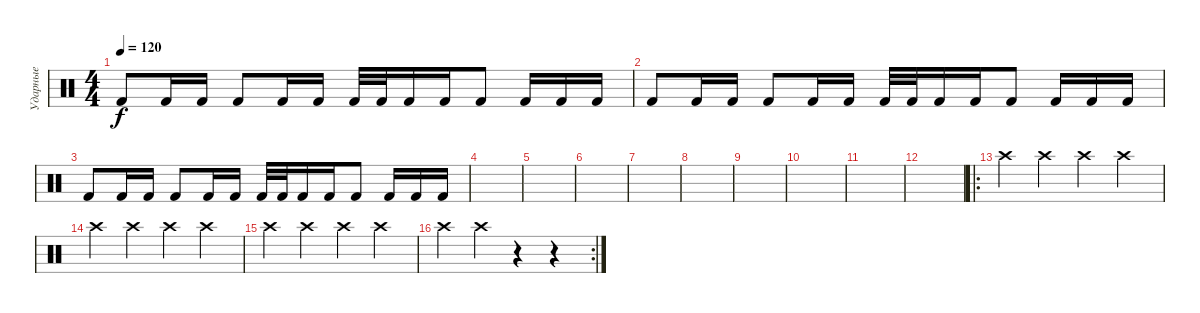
\track ("Ударные" "Ударные") {instrument percussion}
\staff {score}
\articulation defaults
\ts (4 4)
\tempo 120
\clef neutral
\ks c "Kick (hit) 2".8{dy f} "Kick (hit) 2".16 "Kick (hit) 2".16 "Kick (hit) 2".8 "Kick (hit) 2".16 "Kick (hit) 2".16 "Kick (hit) 2".32 "Kick (hit) 2".32 "Kick (hit) 2".16 "Kick (hit) 2".16 "Kick (hit) 2".8 "Kick (hit) 2".16 "Kick (hit) 2".16 "Kick (hit) 2".16
|
"Kick (hit) 2".8 "Kick (hit) 2".16 "Kick (hit) 2".16 "Kick (hit) 2".8 "Kick (hit) 2".16 "Kick (hit) 2".16 "Kick (hit) 2".32 "Kick (hit) 2".32 "Kick (hit) 2".16 "Kick (hit) 2".16 "Kick (hit) 2".8 "Kick (hit) 2".16 "Kick (hit) 2".16 "Kick (hit) 2".16 |
"Kick (hit) 2".8 "Kick (hit) 2".16 "Kick (hit) 2".16 "Kick (hit) 2".8 "Kick (hit) 2".16 "Kick (hit) 2".16 "Kick (hit) 2".32 "Kick (hit) 2".32 "Kick (hit) 2".16 "Kick (hit) 2".16 "Kick (hit) 2".8 "Kick (hit) 2".16 "Kick (hit) 2".16 "Kick (hit) 2".16 |
|
|
|
|
|
|
|
|
|
\ro "Crash high (hit)".4 "Crash high (hit)".4 "Crash high (hit)".4 "Crash high (hit)".4
|
"Crash high (hit)".4 "Crash high (hit)".4 "Crash high (hit)".4 "Crash high (hit)".4 |
"Crash high (hit)".4 "Crash high (hit)".4 "Crash high (hit)".4 "Crash high (hit)".4 |
\rc 2 "Crash high (hit)".4 "Crash high (hit)".4
r.4 r.4
